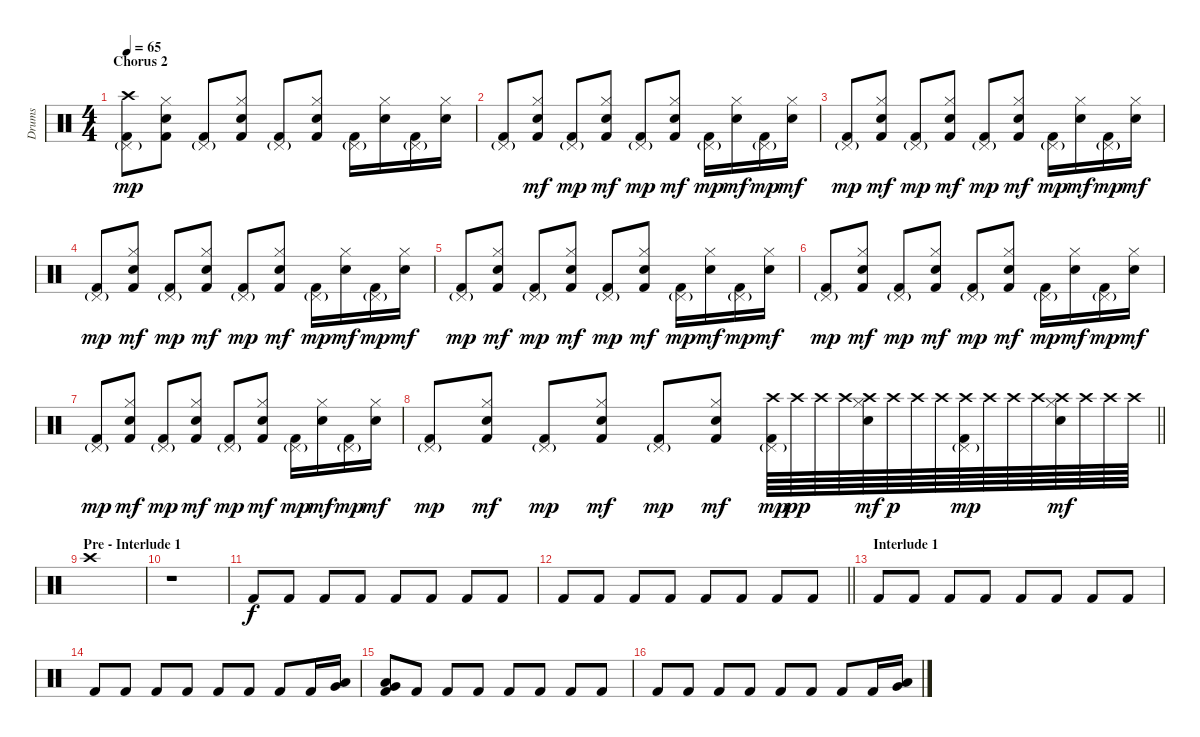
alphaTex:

\track ("Drums" "Drums") {instrument percussion}
\staff {score}
\articulation defaults
\ts (4 4)
\section ("" "Chorus 2")
\tempo 65
\clef neutral
\ks c
("Crash high (hit)" "Pedal Hi-Hat (hit)"{g} "Kick (hit) 2").8{dy mp} ("Hi-Hat (closed)" "Snare (hit) 2" "Kick (hit) 2").8 ("Pedal Hi-Hat (hit)"{g} "Kick (hit) 2").8 ("Hi-Hat (closed)" "Snare (hit) 2" "Kick (hit) 2").8 ("Pedal Hi-Hat (hit)"{g} "Kick (hit) 2").8 ("Hi-Hat (closed)" "Snare (hit) 2" "Kick (hit) 2").8 ("Pedal Hi-Hat (hit)"{g} "Kick (hit) 2").16 ("Hi-Hat (closed)" "Snare (hit) 2").16 ("Pedal Hi-Hat (hit)"{g} "Kick (hit) 2").16 ("Hi-Hat (closed)" "Snare (hit) 2").16 |
("Pedal Hi-Hat (hit)"{g} "Kick (hit) 2").8 ("Hi-Hat (closed)" "Snare (hit) 2" "Kick (hit) 2").8{dy mf} ("Pedal Hi-Hat (hit)"{g} "Kick (hit) 2").8{dy mp} ("Hi-Hat (closed)" "Snare (hit) 2" "Kick (hit) 2").8{dy mf} ("Pedal Hi-Hat (hit)"{g} "Kick (hit) 2").8{dy mp} ("Hi-Hat (closed)" "Snare (hit) 2" "Kick (hit) 2").8{dy mf} ("Pedal Hi-Hat (hit)"{g} "Kick (hit) 2").16{dy mp} ("Hi-Hat (closed)" "Snare (hit) 2").16{dy mf} ("Pedal Hi-Hat (hit)"{g} "Kick (hit) 2").16{dy mp} ("Hi-Hat (closed)" "Snare (hit) 2").16{dy mf} |
("Pedal Hi-Hat (hit)"{g} "Kick (hit) 2").8{dy mp} ("Hi-Hat (closed)" "Snare (hit) 2" "Kick (hit) 2").8{dy mf} ("Pedal Hi-Hat (hit)"{g} "Kick (hit) 2").8{dy mp} ("Hi-Hat (closed)" "Snare (hit) 2" "Kick (hit) 2").8{dy mf} ("Pedal Hi-Hat (hit)"{g} "Kick (hit) 2").8{dy mp} ("Hi-Hat (closed)" "Snare (hit) 2" "Kick (hit) 2").8{dy mf} ("Pedal Hi-Hat (hit)"{g} "Kick (hit) 2").16{dy mp} ("Hi-Hat (closed)" "Snare (hit) 2").16{dy mf} ("Pedal Hi-Hat (hit)"{g} "Kick (hit) 2").16{dy mp} ("Hi-Hat (closed)" "Snare (hit) 2").16{dy mf} |
("Pedal Hi-Hat (hit)"{g} "Kick (hit) 2").8{dy mp} ("Hi-Hat (closed)" "Snare (hit) 2" "Kick (hit) 2").8{dy mf} ("Pedal Hi-Hat (hit)"{g} "Kick (hit) 2").8{dy mp} ("Hi-Hat (closed)" "Snare (hit) 2" "Kick (hit) 2").8{dy mf} ("Pedal Hi-Hat (hit)"{g} "Kick (hit) 2").8{dy mp} ("Hi-Hat (closed)" "Snare (hit) 2" "Kick (hit) 2").8{dy mf} ("Pedal Hi-Hat (hit)"{g} "Kick (hit) 2").16{dy mp} ("Hi-Hat (closed)" "Snare (hit) 2").16{dy mf} ("Pedal Hi-Hat (hit)"{g} "Kick (hit) 2").16{dy mp} ("Hi-Hat (closed)" "Snare (hit) 2").16{dy mf} |
("Pedal Hi-Hat (hit)"{g} "Kick (hit) 2").8{dy mp} ("Hi-Hat (closed)" "Snare (hit) 2" "Kick (hit) 2").8{dy mf} ("Pedal Hi-Hat (hit)"{g} "Kick (hit) 2").8{dy mp} ("Hi-Hat (closed)" "Snare (hit) 2" "Kick (hit) 2").8{dy mf} ("Pedal Hi-Hat (hit)"{g} "Kick (hit) 2").8{dy mp} ("Hi-Hat (closed)" "Snare (hit) 2" "Kick (hit) 2").8{dy mf} ("Pedal Hi-Hat (hit)"{g} "Kick (hit) 2").16{dy mp} ("Hi-Hat (closed)" "Snare (hit) 2").16{dy mf} ("Pedal Hi-Hat (hit)"{g} "Kick (hit) 2").16{dy mp} ("Hi-Hat (closed)" "Snare (hit) 2").16{dy mf} |
("Pedal Hi-Hat (hit)"{g} "Kick (hit) 2").8{dy mp} ("Hi-Hat (closed)" "Snare (hit) 2" "Kick (hit) 2").8{dy mf} ("Pedal Hi-Hat (hit)"{g} "Kick (hit) 2").8{dy mp} ("Hi-Hat (closed)" "Snare (hit) 2" "Kick (hit) 2").8{dy mf} ("Pedal Hi-Hat (hit)"{g} "Kick (hit) 2").8{dy mp} ("Hi-Hat (closed)" "Snare (hit) 2" "Kick (hit) 2").8{dy mf} ("Pedal Hi-Hat (hit)"{g} "Kick (hit) 2").16{dy mp} ("Hi-Hat (closed)" "Snare (hit) 2").16{dy mf} ("Pedal Hi-Hat (hit)"{g} "Kick (hit) 2").16{dy mp} ("Hi-Hat (closed)" "Snare (hit) 2").16{dy mf} |
("Pedal Hi-Hat (hit)"{g} "Kick (hit) 2").8{dy mp} ("Hi-Hat (closed)" "Snare (hit) 2" "Kick (hit) 2").8{dy mf} ("Pedal Hi-Hat (hit)"{g} "Kick (hit) 2").8{dy mp} ("Hi-Hat (closed)" "Snare (hit) 2" "Kick (hit) 2").8{dy mf} ("Pedal Hi-Hat (hit)"{g} "Kick (hit) 2").8{dy mp} ("Hi-Hat (closed)" "Snare (hit) 2" "Kick (hit) 2").8{dy mf} ("Pedal Hi-Hat (hit)"{g} "Kick (hit) 2").16{dy mp} ("Hi-Hat (closed)" "Snare (hit) 2").16{dy mf} ("Pedal Hi-Hat (hit)"{g} "Kick (hit) 2").16{dy mp} ("Hi-Hat (closed)" "Snare (hit) 2").16{dy mf} |
\barLineRight lightlight
("Pedal Hi-Hat (hit)"{g} "Kick (hit) 2").8{dy mp} ("Hi-Hat (closed)" "Snare (hit) 2" "Kick (hit) 2").8{dy mf} ("Pedal Hi-Hat (hit)"{g} "Kick (hit) 2").8{dy mp} ("Hi-Hat (closed)" "Snare (hit) 2" "Kick (hit) 2").8{dy mf} ("Pedal Hi-Hat (hit)"{g} "Kick (hit) 2").8{dy mp} ("Hi-Hat (closed)" "Snare (hit) 2" "Kick (hit) 2").8{dy mf} ("Crash high (hit)" "Pedal Hi-Hat (hit)"{g} "Kick (hit) 2").64{dy mp} "Crash high (hit)".64{dy pp} "Crash high (hit)".64 "Crash high (hit)".64 ("Crash high (hit)" "Hi-Hat (closed)" "Snare (hit) 2").64{dy mf} "Crash high (hit)".64{dy p} "Crash high (hit)".64 "Crash high (hit)".64 ("Crash high (hit)" "Pedal Hi-Hat (hit)"{g} "Kick (hit) 2").64{dy mp} "Crash high (hit)".64 "Crash high (hit)".64 "Crash high (hit)".64 ("Crash high (hit)" "Hi-Hat (closed)" "Snare (hit) 2").64{dy mf} "Crash high (hit)".64 "Crash high (hit)".64 "Crash high (hit)".64 |
\section ("" "Pre - Interlude 1")
"Crash high (hit)".1 |
r.1 |
"Kick (hit) 2".8{dy f} "Kick (hit) 2".8 "Kick (hit) 2".8 "Kick (hit) 2".8 "Kick (hit) 2".8 "Kick (hit) 2".8 "Kick (hit) 2".8 "Kick (hit) 2".8 |
\barLineRight lightlight "Kick (hit) 2".8 "Kick (hit) 2".8 "Kick (hit) 2".8 "Kick (hit) 2".8 "Kick (hit) 2".8 "Kick (hit) 2".8 "Kick (hit) 2".8 "Kick (hit) 2".8
|
\section ("" "Interlude 1")
"Kick (hit) 2".8 "Kick (hit) 2".8 "Kick (hit) 2".8 "Kick (hit) 2".8 "Kick (hit) 2".8 "Kick (hit) 2".8 "Kick (hit) 2".8 "Kick (hit) 2".8 |
"Kick (hit) 2".8 "Kick (hit) 2".8 "Kick (hit) 2".8 "Kick (hit) 2".8 "Kick (hit) 2".8 "Kick (hit) 2".8 "Kick (hit) 2".8 "Kick (hit) 2".16 ("Very Low Tom (hit)" "Low Floor Tom (hit)").16 |
("Very Low Tom (hit)" "Low Floor Tom (hit)" "Kick (hit) 2").8 "Kick (hit) 2".8 "Kick (hit) 2".8 "Kick (hit) 2".8 "Kick (hit) 2".8 "Kick (hit) 2".8 "Kick (hit) 2".8 "Kick (hit) 2".8 |
"Kick (hit) 2".8 "Kick (hit) 2".8 "Kick (hit) 2".8 "Kick (hit) 2".8 "Kick (hit) 2".8 "Kick (hit) 2".8 "Kick (hit) 2".8 "Kick (hit) 2".16 ("Very Low Tom (hit)" "Low Floor Tom (hit)").16
